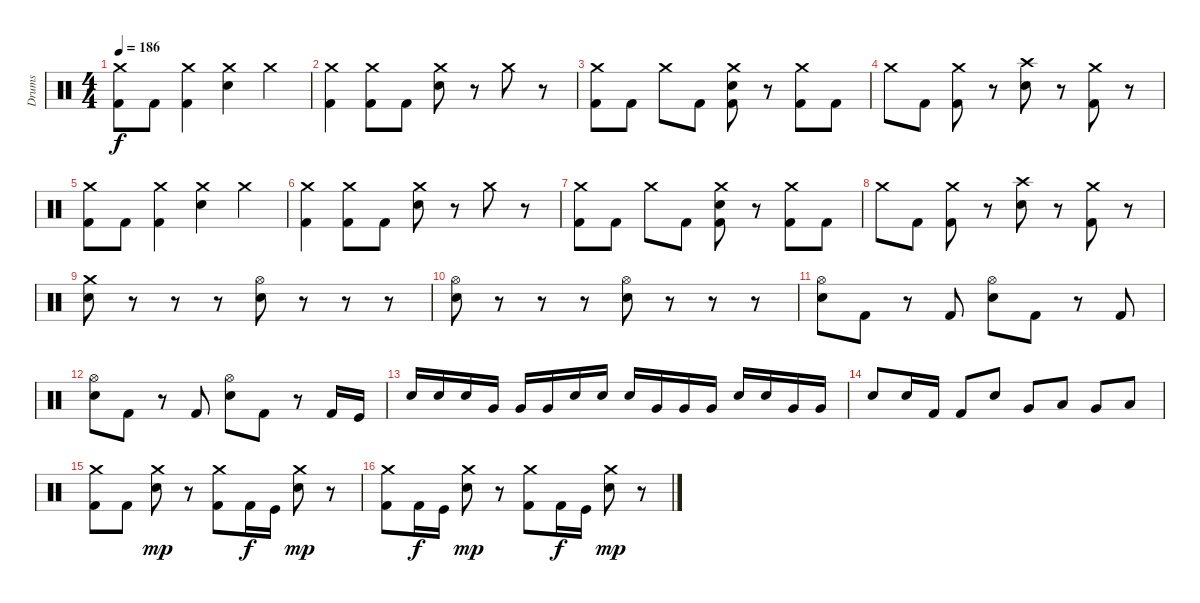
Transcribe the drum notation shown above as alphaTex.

\track ("Drums" "Drums") {instrument percussion}
\staff {score}
\articulation defaults
\ts (4 4)
\tempo 186
\clef neutral
\ks c
("Crash medium (hit)" "Kick (hit) 2").8{dy f} "Kick (hit) 2".8 ("Crash medium (hit)" "Kick (hit) 2").4 ("Crash medium (hit)" "Snare (hit) 2").4 "Crash medium (hit)".4 |
("Crash medium (hit)" "Kick (hit) 2").4 ("Crash medium (hit)" "Kick (hit) 2").8 "Kick (hit) 2".8 ("Crash medium (hit)" "Snare (hit) 2").8 r.8 "Crash medium (hit)".8 r.8 |
("Crash medium (hit)" "Kick (hit) 2").8 "Kick (hit) 2".8 "Crash medium (hit)".8 "Kick (hit) 2".8 ("Crash medium (hit)" "Snare (hit) 2" "Kick (hit) 2").8 r.8 ("Crash medium (hit)" "Kick (hit) 2").8 "Kick (hit) 2".8 |
"Crash medium (hit)".8 "Kick (hit) 2".8 ("Crash medium (hit)" "Kick (hit) 2").8 r.8 ("Crash high (hit)" "Snare (hit) 2").8 r.8 ("Crash medium (hit)" "Kick (hit) 2").8 r.8 |
("Crash medium (hit)" "Kick (hit) 2").8 "Kick (hit) 2".8 ("Crash medium (hit)" "Kick (hit) 2").4 ("Crash medium (hit)" "Snare (hit) 2").4 "Crash medium (hit)".4 |
("Crash medium (hit)" "Kick (hit) 2").4 ("Crash medium (hit)" "Kick (hit) 2").8 "Kick (hit) 2".8 ("Crash medium (hit)" "Snare (hit) 2").8 r.8 "Crash medium (hit)".8 r.8 |
("Crash medium (hit)" "Kick (hit) 2").8 "Kick (hit) 2".8 "Crash medium (hit)".8 "Kick (hit) 2".8 ("Crash medium (hit)" "Snare (hit) 2" "Kick (hit) 2").8 r.8 ("Crash medium (hit)" "Kick (hit) 2").8 "Kick (hit) 2".8 |
"Crash medium (hit)".8 "Kick (hit) 2".8 ("Crash medium (hit)" "Kick (hit) 2").8 r.8 ("Crash high (hit)" "Snare (hit) 2").8 r.8 ("Crash medium (hit)" "Kick (hit) 2").8 r.8 |
("Crash medium (hit)" "Snare (hit) 2").8 r.8 r.8 r.8 ("Hi-Hat (open)" "Snare (hit) 2").8 r.8 r.8 r.8 |
("Hi-Hat (open)" "Snare (hit) 2").8 r.8 r.8 r.8 ("Hi-Hat (open)" "Snare (hit) 2").8 r.8 r.8 r.8 |
("Hi-Hat (open)" "Snare (hit) 2").8 "Kick (hit) 2".8 r.8 "Kick (hit) 2".8 ("Hi-Hat (open)" "Snare (hit) 2").8 "Kick (hit) 2".8 r.8 "Kick (hit) 2".8 |
("Hi-Hat (open)" "Snare (hit) 2").8 "Kick (hit) 2".8 r.8 "Kick (hit) 2".8 ("Hi-Hat (open)" "Snare (hit) 2").8 "Kick (hit) 2".8 r.8 "Kick (hit) 2".16 "Kick (hit)".16 |
"Snare (hit) 2".16 "Snare (hit) 2".16 "Snare (hit) 2".16 "Very Low Tom (hit)".16 "Very Low Tom (hit)".16 "Very Low Tom (hit)".16 "Snare (hit) 2".16 "Snare (hit) 2".16 "Snare (hit) 2".16 "Very Low Tom (hit)".16 "Very Low Tom (hit)".16 "Very Low Tom (hit)".16 "Snare (hit) 2".16 "Snare (hit) 2".16 "Very Low Tom (hit)".16 "Very Low Tom (hit)".16 |
"Snare (hit) 2".8 "Snare (hit) 2".16 "Kick (hit) 2".16 "Kick (hit) 2".8 "Snare (hit) 2".8 "Very Low Tom (hit)".8 "Low Floor Tom (hit)".8 "Very Low Tom (hit)".8 "Low Floor Tom (hit)".8 |
("Crash medium (hit)" "Kick (hit) 2").8 "Kick (hit) 2".8 ("Crash medium (hit)" "Snare (hit) 2").8{dy mp} r.8 ("Crash medium (hit)" "Kick (hit) 2").8 "Kick (hit) 2".16{dy f} "Kick (hit)".16 ("Crash medium (hit)" "Snare (hit) 2").8{dy mp} r.8 |
("Crash medium (hit)" "Kick (hit) 2").8 "Kick (hit) 2".16{dy f} "Kick (hit)".16 ("Crash medium (hit)" "Snare (hit) 2").8{dy mp} r.8 ("Crash medium (hit)" "Kick (hit) 2").8 "Kick (hit) 2".16{dy f} "Kick (hit)".16 ("Crash medium (hit)" "Snare (hit) 2").8{dy mp} r.8
